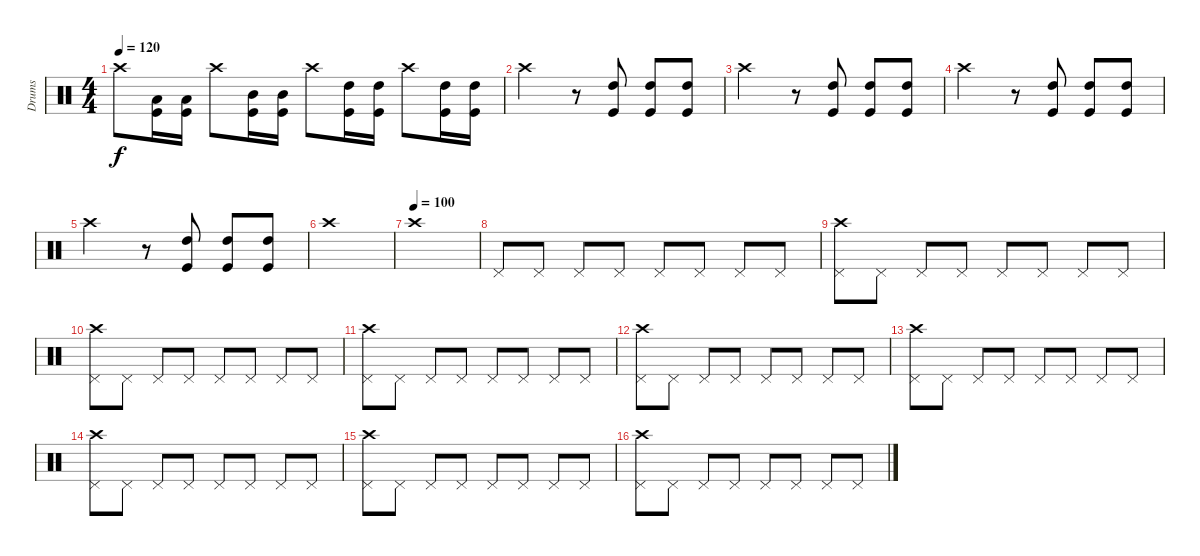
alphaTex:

\track ("Drums" "Drums") {instrument percussion}
\staff {score}
\articulation defaults
\ts (4 4)
\tempo 120
\clef neutral
\ks c "Crash high (hit)".8{dy f}
("Low Tom (hit)" "Kick (hit)").16 ("Low Tom (hit)" "Kick (hit)").16 "Crash high (hit)".8 ("Mid Tom (hit)" "Kick (hit)").16 ("Mid Tom (hit)" "Kick (hit)").16 "Crash high (hit)".8 ("High Tom (hit)" "Kick (hit)").16 ("High Tom (hit)" "Kick (hit)").16 "Crash high (hit)".8 ("High Tom (hit)" "Kick (hit)").16 ("High Tom (hit)" "Kick (hit)").16 |
"Crash high (hit)".2 r.8 ("High Tom (hit)" "Kick (hit)").8 ("High Tom (hit)" "Kick (hit)").8 ("High Tom (hit)" "Kick (hit)").8 |
"Crash high (hit)".2 r.8 ("High Tom (hit)" "Kick (hit)").8 ("High Tom (hit)" "Kick (hit)").8 ("High Tom (hit)" "Kick (hit)").8 |
"Crash high (hit)".2 r.8 ("High Tom (hit)" "Kick (hit)").8 ("High Tom (hit)" "Kick (hit)").8 ("High Tom (hit)" "Kick (hit)").8 |
"Crash high (hit)".2 r.8 ("High Tom (hit)" "Kick (hit)").8 ("High Tom (hit)" "Kick (hit)").8 ("High Tom (hit)" "Kick (hit)").8 |
"Crash high (hit)".1 |
\tempo (100)
"Crash high (hit)".1 |
"Pedal Hi-Hat (hit)".8 "Pedal Hi-Hat (hit)".8 "Pedal Hi-Hat (hit)".8 "Pedal Hi-Hat (hit)".8 "Pedal Hi-Hat (hit)".8 "Pedal Hi-Hat (hit)".8 "Pedal Hi-Hat (hit)".8 "Pedal Hi-Hat (hit)".8 |
("Pedal Hi-Hat (hit)" "Crash high (hit)").8 "Pedal Hi-Hat (hit)".8 "Pedal Hi-Hat (hit)".8 "Pedal Hi-Hat (hit)".8 "Pedal Hi-Hat (hit)".8 "Pedal Hi-Hat (hit)".8 "Pedal Hi-Hat (hit)".8 "Pedal Hi-Hat (hit)".8 |
("Pedal Hi-Hat (hit)" "Crash high (hit)").8 "Pedal Hi-Hat (hit)".8 "Pedal Hi-Hat (hit)".8 "Pedal Hi-Hat (hit)".8 "Pedal Hi-Hat (hit)".8 "Pedal Hi-Hat (hit)".8 "Pedal Hi-Hat (hit)".8 "Pedal Hi-Hat (hit)".8 |
("Pedal Hi-Hat (hit)" "Crash high (hit)").8 "Pedal Hi-Hat (hit)".8 "Pedal Hi-Hat (hit)".8 "Pedal Hi-Hat (hit)".8 "Pedal Hi-Hat (hit)".8 "Pedal Hi-Hat (hit)".8 "Pedal Hi-Hat (hit)".8 "Pedal Hi-Hat (hit)".8 |
("Pedal Hi-Hat (hit)" "Crash high (hit)").8 "Pedal Hi-Hat (hit)".8 "Pedal Hi-Hat (hit)".8 "Pedal Hi-Hat (hit)".8 "Pedal Hi-Hat (hit)".8 "Pedal Hi-Hat (hit)".8 "Pedal Hi-Hat (hit)".8 "Pedal Hi-Hat (hit)".8 |
("Pedal Hi-Hat (hit)" "Crash high (hit)").8 "Pedal Hi-Hat (hit)".8 "Pedal Hi-Hat (hit)".8 "Pedal Hi-Hat (hit)".8 "Pedal Hi-Hat (hit)".8 "Pedal Hi-Hat (hit)".8 "Pedal Hi-Hat (hit)".8 "Pedal Hi-Hat (hit)".8 |
("Pedal Hi-Hat (hit)" "Crash high (hit)").8{volume 1} "Pedal Hi-Hat (hit)".8 "Pedal Hi-Hat (hit)".8 "Pedal Hi-Hat (hit)".8 "Pedal Hi-Hat (hit)".8 "Pedal Hi-Hat (hit)".8 "Pedal Hi-Hat (hit)".8 "Pedal Hi-Hat (hit)".8 |
("Pedal Hi-Hat (hit)" "Crash high (hit)").8 "Pedal Hi-Hat (hit)".8 "Pedal Hi-Hat (hit)".8 "Pedal Hi-Hat (hit)".8 "Pedal Hi-Hat (hit)".8 "Pedal Hi-Hat (hit)".8 "Pedal Hi-Hat (hit)".8 "Pedal Hi-Hat (hit)".8 |
("Pedal Hi-Hat (hit)" "Crash high (hit)").8 "Pedal Hi-Hat (hit)".8 "Pedal Hi-Hat (hit)".8 "Pedal Hi-Hat (hit)".8 "Pedal Hi-Hat (hit)".8 "Pedal Hi-Hat (hit)".8 "Pedal Hi-Hat (hit)".8 "Pedal Hi-Hat (hit)".8
